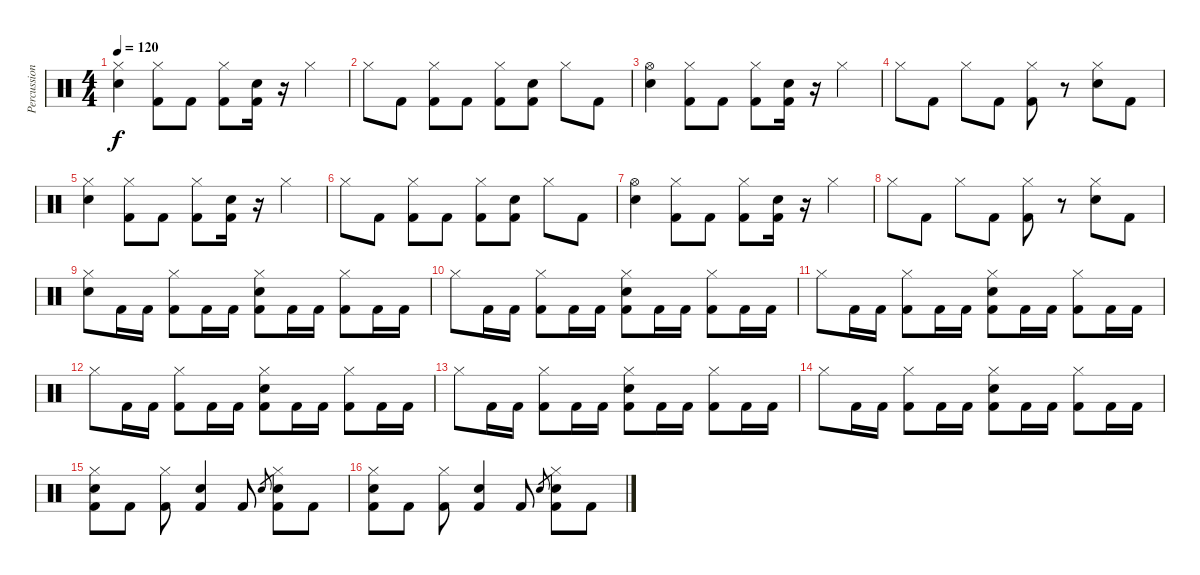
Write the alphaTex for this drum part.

\track ("Percussion" "Percussion") {instrument percussion}
\staff {score}
\articulation defaults
\ts (4 4)
\tempo 120
\clef neutral
\ks c
("Hi-Hat (closed)" "Snare (hit) 2").4{dy f} ("Hi-Hat (closed)" "Kick (hit) 2").8 "Kick (hit) 2".8 ("Hi-Hat (closed)" "Kick (hit) 2").8 ("Snare (hit) 2" "Kick (hit) 2").16 r.16 "Hi-Hat (closed)".4 |
"Hi-Hat (closed)".8 "Kick (hit) 2".8 ("Hi-Hat (closed)" "Kick (hit) 2").8 "Kick (hit) 2".8 ("Hi-Hat (closed)" "Kick (hit) 2").8 ("Snare (hit) 2" "Kick (hit) 2").8 "Hi-Hat (closed)".8 "Kick (hit) 2".8 |
("Hi-Hat (open)" "Snare (hit) 2").4 ("Hi-Hat (closed)" "Kick (hit) 2").8 "Kick (hit) 2".8 ("Hi-Hat (closed)" "Kick (hit) 2").8 ("Snare (hit) 2" "Kick (hit) 2").16 r.16 "Hi-Hat (closed)".4 |
"Hi-Hat (closed)".8 "Kick (hit) 2".8 "Hi-Hat (closed)".8 "Kick (hit) 2".8 ("Hi-Hat (closed)" "Kick (hit) 2").8 r.8 ("Hi-Hat (closed)" "Snare (hit) 2").8 "Kick (hit) 2".8 |
("Hi-Hat (closed)" "Snare (hit) 2").4 ("Hi-Hat (closed)" "Kick (hit) 2").8 "Kick (hit) 2".8 ("Hi-Hat (closed)" "Kick (hit) 2").8 ("Snare (hit) 2" "Kick (hit) 2").16 r.16 "Hi-Hat (closed)".4 |
"Hi-Hat (closed)".8 "Kick (hit) 2".8 ("Hi-Hat (closed)" "Kick (hit) 2").8 "Kick (hit) 2".8 ("Hi-Hat (closed)" "Kick (hit) 2").8 ("Snare (hit) 2" "Kick (hit) 2").8 "Hi-Hat (closed)".8 "Kick (hit) 2".8 |
("Hi-Hat (open)" "Snare (hit) 2").4 ("Hi-Hat (closed)" "Kick (hit) 2").8 "Kick (hit) 2".8 ("Hi-Hat (closed)" "Kick (hit) 2").8 ("Snare (hit) 2" "Kick (hit) 2").16 r.16 "Hi-Hat (closed)".4 |
"Hi-Hat (closed)".8 "Kick (hit) 2".8 "Hi-Hat (closed)".8 "Kick (hit) 2".8 ("Hi-Hat (closed)" "Kick (hit) 2").8 r.8 ("Hi-Hat (closed)" "Snare (hit) 2").8 "Kick (hit) 2".8 |
("Hi-Hat (closed)" "Snare (hit) 2").8 "Kick (hit) 2".16 "Kick (hit) 2".16 ("Hi-Hat (closed)" "Kick (hit) 2").8 "Kick (hit) 2".16 "Kick (hit) 2".16 ("Hi-Hat (closed)" "Snare (hit) 2" "Kick (hit) 2").8 "Kick (hit) 2".16 "Kick (hit) 2".16 ("Hi-Hat (closed)" "Kick (hit) 2").8 "Kick (hit) 2".16 "Kick (hit) 2".16 |
"Hi-Hat (closed)".8 "Kick (hit) 2".16 "Kick (hit) 2".16 ("Hi-Hat (closed)" "Kick (hit) 2").8 "Kick (hit) 2".16 "Kick (hit) 2".16 ("Hi-Hat (closed)" "Snare (hit) 2" "Kick (hit) 2").8 "Kick (hit) 2".16 "Kick (hit) 2".16 ("Hi-Hat (closed)" "Kick (hit) 2").8 "Kick (hit) 2".16 "Kick (hit) 2".16 |
"Hi-Hat (closed)".8 "Kick (hit) 2".16 "Kick (hit) 2".16 ("Hi-Hat (closed)" "Kick (hit) 2").8 "Kick (hit) 2".16 "Kick (hit) 2".16 ("Hi-Hat (closed)" "Snare (hit) 2" "Kick (hit) 2").8 "Kick (hit) 2".16 "Kick (hit) 2".16 ("Hi-Hat (closed)" "Kick (hit) 2").8 "Kick (hit) 2".16 "Kick (hit) 2".16 |
"Hi-Hat (closed)".8 "Kick (hit) 2".16 "Kick (hit) 2".16 ("Hi-Hat (closed)" "Kick (hit) 2").8 "Kick (hit) 2".16 "Kick (hit) 2".16 ("Hi-Hat (closed)" "Snare (hit) 2" "Kick (hit) 2").8 "Kick (hit) 2".16 "Kick (hit) 2".16 ("Hi-Hat (closed)" "Kick (hit) 2").8 "Kick (hit) 2".16 "Kick (hit) 2".16 |
"Hi-Hat (closed)".8 "Kick (hit) 2".16 "Kick (hit) 2".16 ("Hi-Hat (closed)" "Kick (hit) 2").8 "Kick (hit) 2".16 "Kick (hit) 2".16 ("Hi-Hat (closed)" "Snare (hit) 2" "Kick (hit) 2").8 "Kick (hit) 2".16 "Kick (hit) 2".16 ("Hi-Hat (closed)" "Kick (hit) 2").8 "Kick (hit) 2".16 "Kick (hit) 2".16 |
"Hi-Hat (closed)".8 "Kick (hit) 2".16 "Kick (hit) 2".16 ("Hi-Hat (closed)" "Kick (hit) 2").8 "Kick (hit) 2".16 "Kick (hit) 2".16 ("Hi-Hat (closed)" "Snare (hit) 2" "Kick (hit) 2").8 "Kick (hit) 2".16 "Kick (hit) 2".16 ("Hi-Hat (closed)" "Kick (hit) 2").8 "Kick (hit) 2".16 "Kick (hit) 2".16 |
("Hi-Hat (closed)" "Snare (hit) 2" "Kick (hit) 2").8 "Kick (hit) 2".8 ("Hi-Hat (closed)" "Kick (hit) 2").8 ("Snare (hit) 2" "Kick (hit) 2").4 "Kick (hit) 2".8 "Snare (hit) 2".8{gr} ("Hi-Hat (closed)" "Snare (hit) 2" "Kick (hit) 2").8 "Kick (hit) 2".8 |
("Hi-Hat (closed)" "Snare (hit) 2" "Kick (hit) 2").8 "Kick (hit) 2".8 ("Hi-Hat (closed)" "Kick (hit) 2").8 ("Snare (hit) 2" "Kick (hit) 2").4 "Kick (hit) 2".8 "Snare (hit) 2".8{gr} ("Hi-Hat (closed)" "Snare (hit) 2" "Kick (hit) 2").8 "Kick (hit) 2".8
